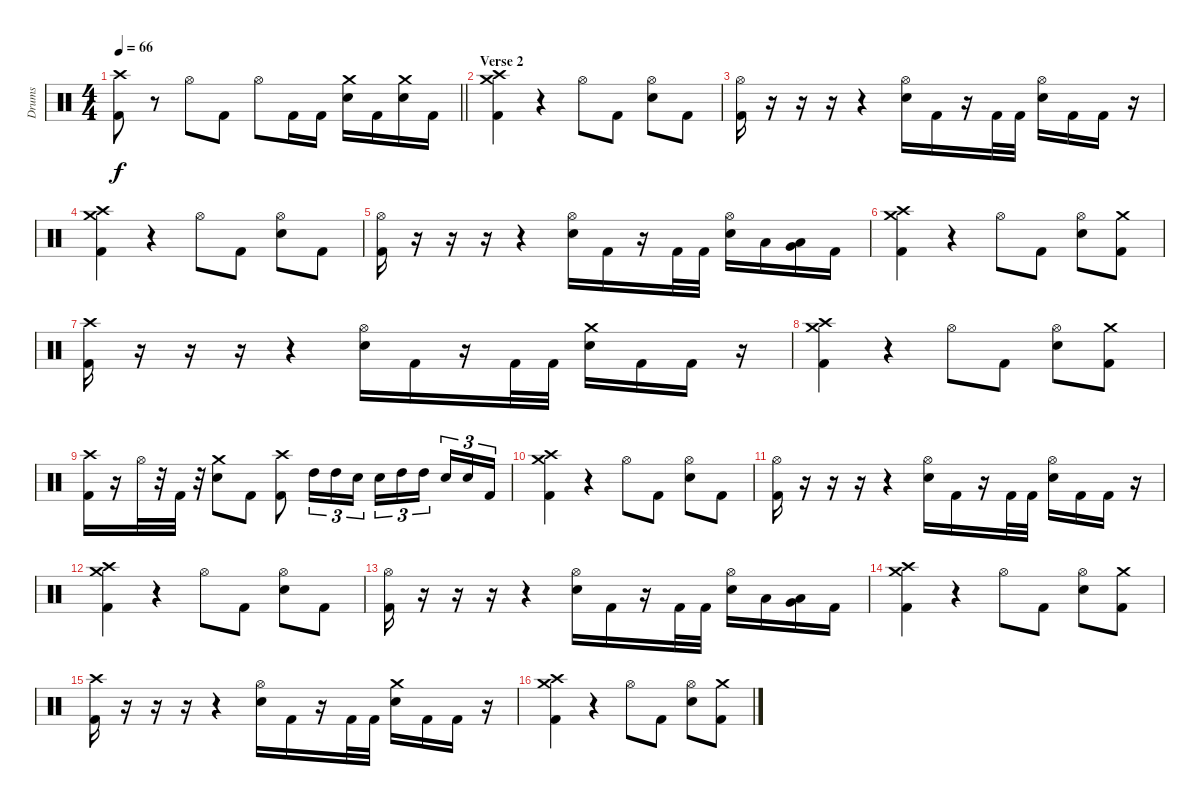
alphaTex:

\track ("Drums" "Drums") {instrument percussion}
\staff {score}
\articulation defaults
\ts (4 4)
\tempo 66
\clef neutral
\barLineRight lightlight
\ks c
("Crash high (hit)" "Kick (hit) 2").8{dy f} r.8 "Hi-Hat (open)".8 "Kick (hit) 2".8 "Hi-Hat (open)".8 "Kick (hit) 2".16 "Kick (hit) 2".16 ("Crash medium (hit)" "Snare (hit) 2").16 "Kick (hit) 2".16 ("Crash medium (hit)" "Snare (hit) 2").16 "Kick (hit) 2".16 |
\section ("" "Verse 2")
("Crash high (hit)" "Crash medium (hit)" "Kick (hit) 2").4 r.4 "Hi-Hat (open)".8 "Kick (hit) 2".8 ("Hi-Hat (open)" "Snare (hit) 2").8 "Kick (hit) 2".8 |
("Hi-Hat (open)" "Kick (hit) 2").16 r.16 r.16 r.16 r.4 ("Hi-Hat (open)" "Snare (hit) 2").16 "Kick (hit) 2".16 r.16 "Kick (hit) 2".32 "Kick (hit) 2".32 ("Hi-Hat (open)" "Snare (hit) 2").16 "Kick (hit) 2".16 "Kick (hit) 2".16 r.16 |
("Crash high (hit)" "Crash medium (hit)" "Kick (hit) 2").4 r.4 "Hi-Hat (open)".8 "Kick (hit) 2".8 ("Hi-Hat (open)" "Snare (hit) 2").8 "Kick (hit) 2".8 |
("Hi-Hat (open)" "Kick (hit) 2").16 r.16 r.16 r.16 r.4 ("Hi-Hat (open)" "Snare (hit) 2").16 "Kick (hit) 2".16 r.16 "Kick (hit) 2".32 "Kick (hit) 2".32 ("Hi-Hat (open)" "Snare (hit) 2").16 "Low Tom (hit)".16 ("Low Tom (hit)" "Very Low Tom (hit)").16 "Kick (hit) 2".16 |
("Crash high (hit)" "Crash medium (hit)" "Kick (hit) 2").4 r.4 "Hi-Hat (open)".8 "Kick (hit) 2".8 ("Hi-Hat (open)" "Snare (hit) 2").8 ("Crash medium (hit)" "Kick (hit) 2").8 |
("Crash high (hit)" "Kick (hit) 2").16 r.16 r.16 r.16 r.4 ("Hi-Hat (open)" "Snare (hit) 2").16 "Kick (hit) 2".16 r.16 "Kick (hit) 2".32 "Kick (hit) 2".32 ("Crash medium (hit)" "Snare (hit) 2").16 "Kick (hit) 2".16 "Kick (hit) 2".16 r.16 |
("Crash high (hit)" "Crash medium (hit)" "Kick (hit) 2").4 r.4 "Hi-Hat (open)".8 "Kick (hit) 2".8 ("Hi-Hat (open)" "Snare (hit) 2").8 ("Crash medium (hit)" "Kick (hit) 2").8 |
("Crash high (hit)" "Kick (hit) 2").16 r.16 "Hi-Hat (open)".32 r.32 "Kick (hit) 2".32 r.32 ("Crash medium (hit)" "Snare (hit) 2").8 "Kick (hit) 2".8 ("Crash high (hit)" "Kick (hit) 2").8 "High Tom (hit)".16{tu (3 2)} "High Tom (hit)".16{tu (3 2)} "Snare (hit) 2".16{tu (3 2)} "Snare (hit) 2".16{tu (3 2)} "High Tom (hit)".16{tu (3 2)} "High Tom (hit)".16{tu (3 2) beam splitsecondary} "Snare (hit) 2".16{tu (3 2)} "Snare (hit) 2".16{tu (3 2)} "Kick (hit) 2".16{tu (3 2)} |
("Crash high (hit)" "Crash medium (hit)" "Kick (hit) 2").4 r.4 "Hi-Hat (open)".8 "Kick (hit) 2".8 ("Hi-Hat (open)" "Snare (hit) 2").8 "Kick (hit) 2".8 |
("Hi-Hat (open)" "Kick (hit) 2").16 r.16 r.16 r.16 r.4 ("Hi-Hat (open)" "Snare (hit) 2").16 "Kick (hit) 2".16 r.16 "Kick (hit) 2".32 "Kick (hit) 2".32 ("Hi-Hat (open)" "Snare (hit) 2").16 "Kick (hit) 2".16 "Kick (hit) 2".16 r.16 |
("Crash high (hit)" "Crash medium (hit)" "Kick (hit) 2").4 r.4 "Hi-Hat (open)".8 "Kick (hit) 2".8 ("Hi-Hat (open)" "Snare (hit) 2").8 "Kick (hit) 2".8 |
("Hi-Hat (open)" "Kick (hit) 2").16 r.16 r.16 r.16 r.4 ("Hi-Hat (open)" "Snare (hit) 2").16 "Kick (hit) 2".16 r.16 "Kick (hit) 2".32 "Kick (hit) 2".32 ("Hi-Hat (open)" "Snare (hit) 2").16 "Low Tom (hit)".16 ("Low Tom (hit)" "Very Low Tom (hit)").16 "Kick (hit) 2".16 |
("Crash high (hit)" "Crash medium (hit)" "Kick (hit) 2").4 r.4 "Hi-Hat (open)".8 "Kick (hit) 2".8 ("Hi-Hat (open)" "Snare (hit) 2").8 ("Crash medium (hit)" "Kick (hit) 2").8 |
("Crash high (hit)" "Kick (hit) 2").16 r.16 r.16 r.16 r.4 ("Hi-Hat (open)" "Snare (hit) 2").16 "Kick (hit) 2".16 r.16 "Kick (hit) 2".32 "Kick (hit) 2".32 ("Crash medium (hit)" "Snare (hit) 2").16 "Kick (hit) 2".16 "Kick (hit) 2".16 r.16 |
("Crash high (hit)" "Crash medium (hit)" "Kick (hit) 2").4 r.4 "Hi-Hat (open)".8 "Kick (hit) 2".8 ("Hi-Hat (open)" "Snare (hit) 2").8 ("Crash medium (hit)" "Kick (hit) 2").8
